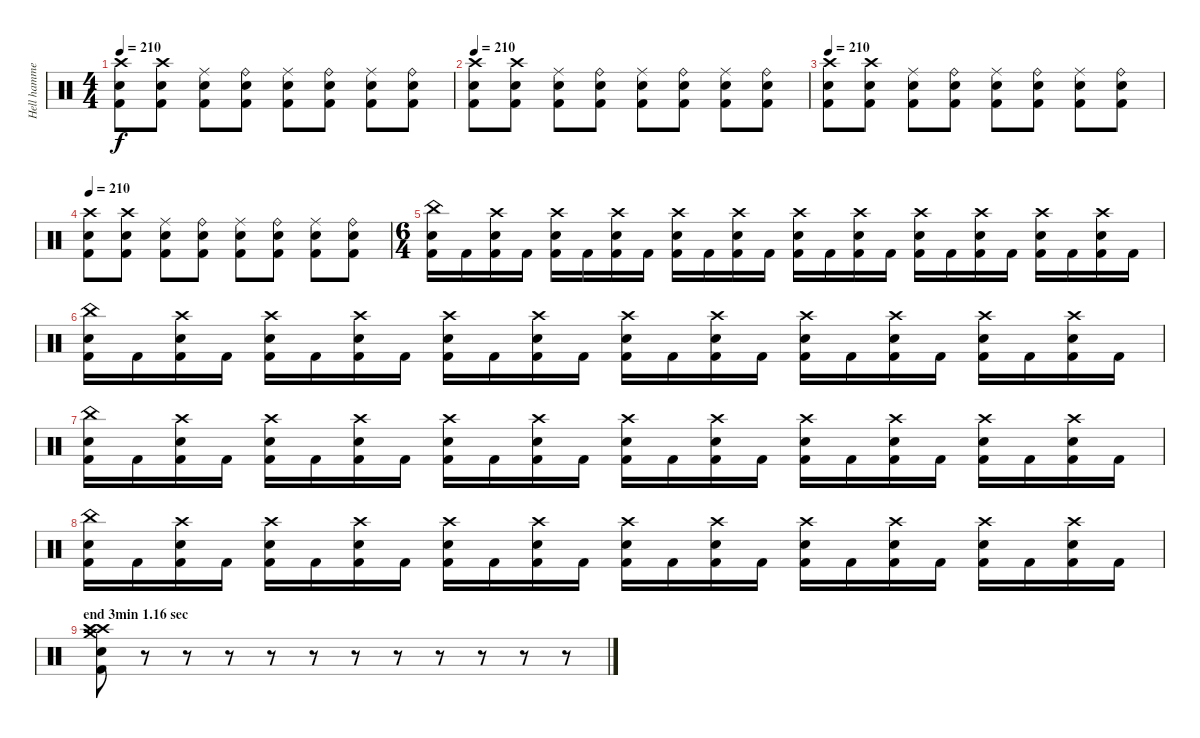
\track ("Hell hammers" "Hell hamme") {instrument percussion}
\staff {score}
\articulation defaults
\ts (4 4)
\tempo 210
\clef neutral
\ks c
("Crash high (hit)" "Snare (hit) 2" "Kick (hit) 2").8{dy f} ("Crash high (hit)" "Snare (hit) 2" "Kick (hit) 2").8 ("Ride (middle)" "Snare (hit) 2" "Kick (hit) 2").8 ("Ride (bell)" "Snare (hit) 2" "Kick (hit) 2").8 ("Ride (middle)" "Snare (hit) 2" "Kick (hit) 2").8 ("Ride (bell)" "Snare (hit) 2" "Kick (hit) 2").8 ("Ride (middle)" "Snare (hit) 2" "Kick (hit) 2").8 ("Ride (bell)" "Snare (hit) 2" "Kick (hit) 2").8 |
\tempo 210
("Crash high (hit)" "Snare (hit) 2" "Kick (hit) 2").8 ("Crash high (hit)" "Snare (hit) 2" "Kick (hit) 2").8 ("Ride (middle)" "Snare (hit) 2" "Kick (hit) 2").8 ("Ride (bell)" "Snare (hit) 2" "Kick (hit) 2").8 ("Ride (middle)" "Snare (hit) 2" "Kick (hit) 2").8 ("Ride (bell)" "Snare (hit) 2" "Kick (hit) 2").8 ("Ride (middle)" "Snare (hit) 2" "Kick (hit) 2").8 ("Ride (bell)" "Snare (hit) 2" "Kick (hit) 2").8 |
\tempo 210
("Crash high (hit)" "Snare (hit) 2" "Kick (hit) 2").8 ("Crash high (hit)" "Snare (hit) 2" "Kick (hit) 2").8 ("Ride (middle)" "Snare (hit) 2" "Kick (hit) 2").8 ("Ride (bell)" "Snare (hit) 2" "Kick (hit) 2").8 ("Ride (middle)" "Snare (hit) 2" "Kick (hit) 2").8 ("Ride (bell)" "Snare (hit) 2" "Kick (hit) 2").8 ("Ride (middle)" "Snare (hit) 2" "Kick (hit) 2").8 ("Ride (bell)" "Snare (hit) 2" "Kick (hit) 2").8 |
\tempo 210
("Crash high (hit)" "Snare (hit) 2" "Kick (hit) 2").8 ("Crash high (hit)" "Snare (hit) 2" "Kick (hit) 2").8 ("Ride (middle)" "Snare (hit) 2" "Kick (hit) 2").8 ("Ride (bell)" "Snare (hit) 2" "Kick (hit) 2").8 ("Ride (middle)" "Snare (hit) 2" "Kick (hit) 2").8 ("Ride (bell)" "Snare (hit) 2" "Kick (hit) 2").8 ("Ride (middle)" "Snare (hit) 2" "Kick (hit) 2").8 ("Ride (bell)" "Snare (hit) 2" "Kick (hit) 2").8 |
\ts (6 4)
("China (hit)" "Snare (hit) 2" "Kick (hit) 2").16 "Kick (hit) 2".16 ("Crash high (hit)" "Snare (hit) 2" "Kick (hit) 2").16 "Kick (hit) 2".16 ("Crash high (hit)" "Snare (hit) 2" "Kick (hit) 2").16 "Kick (hit) 2".16 ("Crash high (hit)" "Snare (hit) 2" "Kick (hit) 2").16 "Kick (hit) 2".16 ("Crash high (hit)" "Snare (hit) 2" "Kick (hit) 2").16 "Kick (hit) 2".16 ("Crash high (hit)" "Snare (hit) 2" "Kick (hit) 2").16 "Kick (hit) 2".16 ("Crash high (hit)" "Snare (hit) 2" "Kick (hit) 2").16 "Kick (hit) 2".16 ("Crash high (hit)" "Snare (hit) 2" "Kick (hit) 2").16 "Kick (hit) 2".16 ("Crash high (hit)" "Snare (hit) 2" "Kick (hit) 2").16 "Kick (hit) 2".16 ("Crash high (hit)" "Snare (hit) 2" "Kick (hit) 2").16 "Kick (hit) 2".16 ("Crash high (hit)" "Snare (hit) 2" "Kick (hit) 2").16 "Kick (hit) 2".16 ("Crash high (hit)" "Snare (hit) 2" "Kick (hit) 2").16 "Kick (hit) 2".16 |
("China (hit)" "Snare (hit) 2" "Kick (hit) 2").16 "Kick (hit) 2".16 ("Crash high (hit)" "Snare (hit) 2" "Kick (hit) 2").16 "Kick (hit) 2".16 ("Crash high (hit)" "Snare (hit) 2" "Kick (hit) 2").16 "Kick (hit) 2".16 ("Crash high (hit)" "Snare (hit) 2" "Kick (hit) 2").16 "Kick (hit) 2".16 ("Crash high (hit)" "Snare (hit) 2" "Kick (hit) 2").16 "Kick (hit) 2".16 ("Crash high (hit)" "Snare (hit) 2" "Kick (hit) 2").16 "Kick (hit) 2".16 ("Crash high (hit)" "Snare (hit) 2" "Kick (hit) 2").16 "Kick (hit) 2".16 ("Crash high (hit)" "Snare (hit) 2" "Kick (hit) 2").16 "Kick (hit) 2".16 ("Crash high (hit)" "Snare (hit) 2" "Kick (hit) 2").16 "Kick (hit) 2".16 ("Crash high (hit)" "Snare (hit) 2" "Kick (hit) 2").16 "Kick (hit) 2".16 ("Crash high (hit)" "Snare (hit) 2" "Kick (hit) 2").16 "Kick (hit) 2".16 ("Crash high (hit)" "Snare (hit) 2" "Kick (hit) 2").16 "Kick (hit) 2".16 |
("China (hit)" "Snare (hit) 2" "Kick (hit) 2").16 "Kick (hit) 2".16 ("Crash high (hit)" "Snare (hit) 2" "Kick (hit) 2").16 "Kick (hit) 2".16 ("Crash high (hit)" "Snare (hit) 2" "Kick (hit) 2").16 "Kick (hit) 2".16 ("Crash high (hit)" "Snare (hit) 2" "Kick (hit) 2").16 "Kick (hit) 2".16 ("Crash high (hit)" "Snare (hit) 2" "Kick (hit) 2").16 "Kick (hit) 2".16 ("Crash high (hit)" "Snare (hit) 2" "Kick (hit) 2").16 "Kick (hit) 2".16 ("Crash high (hit)" "Snare (hit) 2" "Kick (hit) 2").16 "Kick (hit) 2".16 ("Crash high (hit)" "Snare (hit) 2" "Kick (hit) 2").16 "Kick (hit) 2".16 ("Crash high (hit)" "Snare (hit) 2" "Kick (hit) 2").16 "Kick (hit) 2".16 ("Crash high (hit)" "Snare (hit) 2" "Kick (hit) 2").16 "Kick (hit) 2".16 ("Crash high (hit)" "Snare (hit) 2" "Kick (hit) 2").16 "Kick (hit) 2".16 ("Crash high (hit)" "Snare (hit) 2" "Kick (hit) 2").16 "Kick (hit) 2".16 |
("China (hit)" "Snare (hit) 2" "Kick (hit) 2").16 "Kick (hit) 2".16 ("Crash high (hit)" "Snare (hit) 2" "Kick (hit) 2").16 "Kick (hit) 2".16 ("Crash high (hit)" "Snare (hit) 2" "Kick (hit) 2").16 "Kick (hit) 2".16 ("Crash high (hit)" "Snare (hit) 2" "Kick (hit) 2").16 "Kick (hit) 2".16 ("Crash high (hit)" "Snare (hit) 2" "Kick (hit) 2").16 "Kick (hit) 2".16 ("Crash high (hit)" "Snare (hit) 2" "Kick (hit) 2").16 "Kick (hit) 2".16 ("Crash high (hit)" "Snare (hit) 2" "Kick (hit) 2").16 "Kick (hit) 2".16 ("Crash high (hit)" "Snare (hit) 2" "Kick (hit) 2").16 "Kick (hit) 2".16 ("Crash high (hit)" "Snare (hit) 2" "Kick (hit) 2").16 "Kick (hit) 2".16 ("Crash high (hit)" "Snare (hit) 2" "Kick (hit) 2").16 "Kick (hit) 2".16 ("Crash high (hit)" "Snare (hit) 2" "Kick (hit) 2").16 "Kick (hit) 2".16 ("Crash high (hit)" "Snare (hit) 2" "Kick (hit) 2").16 "Kick (hit) 2".16 |
\section ("" "end 3min 1.16 sec")
("Crash medium (hit)" "Crash high (hit)" "Crash high (hit)" "Snare (hit) 2" "Kick (hit) 2").8 r.8 r.8 r.8 r.8 r.8 r.8 r.8 r.8 r.8 r.8 r.8
